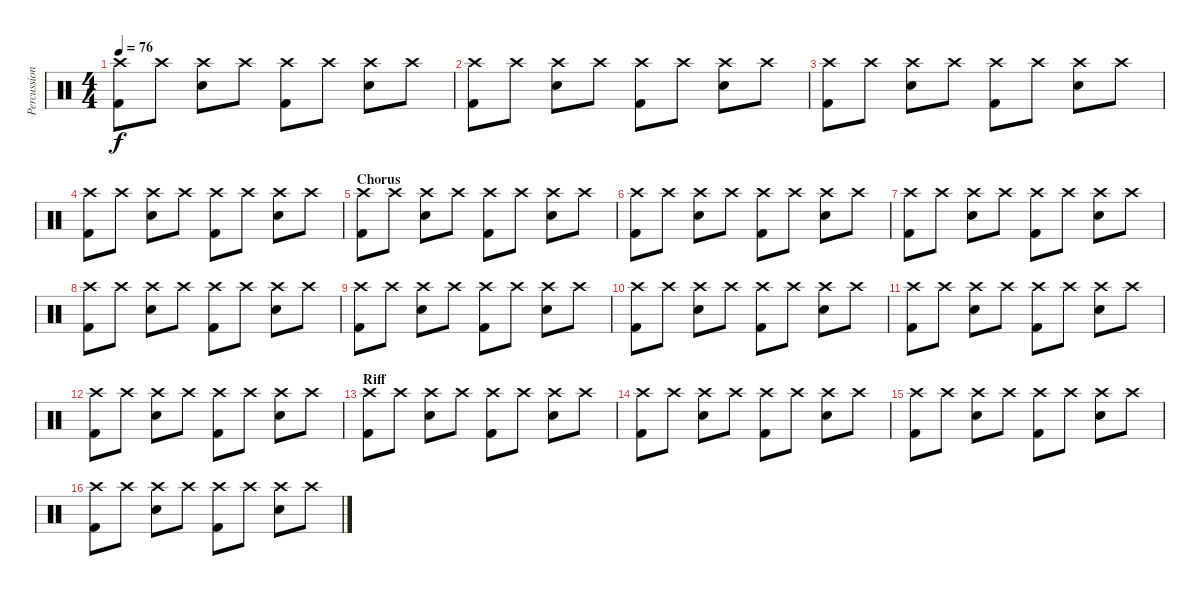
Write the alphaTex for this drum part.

\track ("Percussion" "Percussion") {instrument percussion}
\staff {score}
\articulation defaults
\ts (4 4)
\tempo 76
\clef neutral
\ks c
("Crash high (hit)" "Kick (hit) 2").8{dy f} "Crash high (hit)".8 ("Crash high (hit)" "Electric Snare (hit)").8 "Crash high (hit)".8 ("Crash high (hit)" "Kick (hit) 2").8 "Crash high (hit)".8 ("Crash high (hit)" "Electric Snare (hit)").8 "Crash high (hit)".8 |
("Crash high (hit)" "Kick (hit) 2").8 "Crash high (hit)".8 ("Crash high (hit)" "Electric Snare (hit)").8 "Crash high (hit)".8 ("Crash high (hit)" "Kick (hit) 2").8 "Crash high (hit)".8 ("Crash high (hit)" "Electric Snare (hit)").8 "Crash high (hit)".8 |
("Crash high (hit)" "Kick (hit) 2").8 "Crash high (hit)".8 ("Crash high (hit)" "Electric Snare (hit)").8 "Crash high (hit)".8 ("Crash high (hit)" "Kick (hit) 2").8 "Crash high (hit)".8 ("Crash high (hit)" "Electric Snare (hit)").8 "Crash high (hit)".8 |
("Crash high (hit)" "Kick (hit) 2").8 "Crash high (hit)".8 ("Crash high (hit)" "Electric Snare (hit)").8 "Crash high (hit)".8 ("Crash high (hit)" "Kick (hit) 2").8 "Crash high (hit)".8 ("Crash high (hit)" "Electric Snare (hit)").8 "Crash high (hit)".8 |
\section ("" "Chorus")
("Crash high (hit)" "Kick (hit) 2").8 "Crash high (hit)".8 ("Crash high (hit)" "Electric Snare (hit)").8 "Crash high (hit)".8 ("Crash high (hit)" "Kick (hit) 2").8 "Crash high (hit)".8 ("Crash high (hit)" "Electric Snare (hit)").8 "Crash high (hit)".8 |
("Crash high (hit)" "Kick (hit) 2").8 "Crash high (hit)".8 ("Crash high (hit)" "Electric Snare (hit)").8 "Crash high (hit)".8 ("Crash high (hit)" "Kick (hit) 2").8 "Crash high (hit)".8 ("Crash high (hit)" "Electric Snare (hit)").8 "Crash high (hit)".8 |
("Crash high (hit)" "Kick (hit) 2").8 "Crash high (hit)".8 ("Crash high (hit)" "Electric Snare (hit)").8 "Crash high (hit)".8 ("Crash high (hit)" "Kick (hit) 2").8 "Crash high (hit)".8 ("Crash high (hit)" "Electric Snare (hit)").8 "Crash high (hit)".8 |
("Crash high (hit)" "Kick (hit) 2").8 "Crash high (hit)".8 ("Crash high (hit)" "Electric Snare (hit)").8 "Crash high (hit)".8 ("Crash high (hit)" "Kick (hit) 2").8 "Crash high (hit)".8 ("Crash high (hit)" "Electric Snare (hit)").8 "Crash high (hit)".8 |
("Crash high (hit)" "Kick (hit) 2").8 "Crash high (hit)".8 ("Crash high (hit)" "Electric Snare (hit)").8 "Crash high (hit)".8 ("Crash high (hit)" "Kick (hit) 2").8 "Crash high (hit)".8 ("Crash high (hit)" "Electric Snare (hit)").8 "Crash high (hit)".8 |
("Crash high (hit)" "Kick (hit) 2").8 "Crash high (hit)".8 ("Crash high (hit)" "Electric Snare (hit)").8 "Crash high (hit)".8 ("Crash high (hit)" "Kick (hit) 2").8 "Crash high (hit)".8 ("Crash high (hit)" "Electric Snare (hit)").8 "Crash high (hit)".8 |
("Crash high (hit)" "Kick (hit) 2").8 "Crash high (hit)".8 ("Crash high (hit)" "Electric Snare (hit)").8 "Crash high (hit)".8 ("Crash high (hit)" "Kick (hit) 2").8 "Crash high (hit)".8 ("Crash high (hit)" "Electric Snare (hit)").8 "Crash high (hit)".8 |
("Crash high (hit)" "Kick (hit) 2").8 "Crash high (hit)".8 ("Crash high (hit)" "Electric Snare (hit)").8 "Crash high (hit)".8 ("Crash high (hit)" "Kick (hit) 2").8 "Crash high (hit)".8 ("Crash high (hit)" "Electric Snare (hit)").8 "Crash high (hit)".8 |
\section ("" "Riff")
("Crash high (hit)" "Kick (hit) 2").8 "Crash high (hit)".8 ("Crash high (hit)" "Electric Snare (hit)").8 "Crash high (hit)".8 ("Crash high (hit)" "Kick (hit) 2").8 "Crash high (hit)".8 ("Crash high (hit)" "Electric Snare (hit)").8 "Crash high (hit)".8 |
("Crash high (hit)" "Kick (hit) 2").8 "Crash high (hit)".8 ("Crash high (hit)" "Electric Snare (hit)").8 "Crash high (hit)".8 ("Crash high (hit)" "Kick (hit) 2").8 "Crash high (hit)".8 ("Crash high (hit)" "Electric Snare (hit)").8 "Crash high (hit)".8 |
("Crash high (hit)" "Kick (hit) 2").8 "Crash high (hit)".8 ("Crash high (hit)" "Electric Snare (hit)").8 "Crash high (hit)".8 ("Crash high (hit)" "Kick (hit) 2").8 "Crash high (hit)".8 ("Crash high (hit)" "Electric Snare (hit)").8 "Crash high (hit)".8 |
("Crash high (hit)" "Kick (hit) 2").8 "Crash high (hit)".8 ("Crash high (hit)" "Electric Snare (hit)").8 "Crash high (hit)".8 ("Crash high (hit)" "Kick (hit) 2").8 "Crash high (hit)".8 ("Crash high (hit)" "Electric Snare (hit)").8 "Crash high (hit)".8
